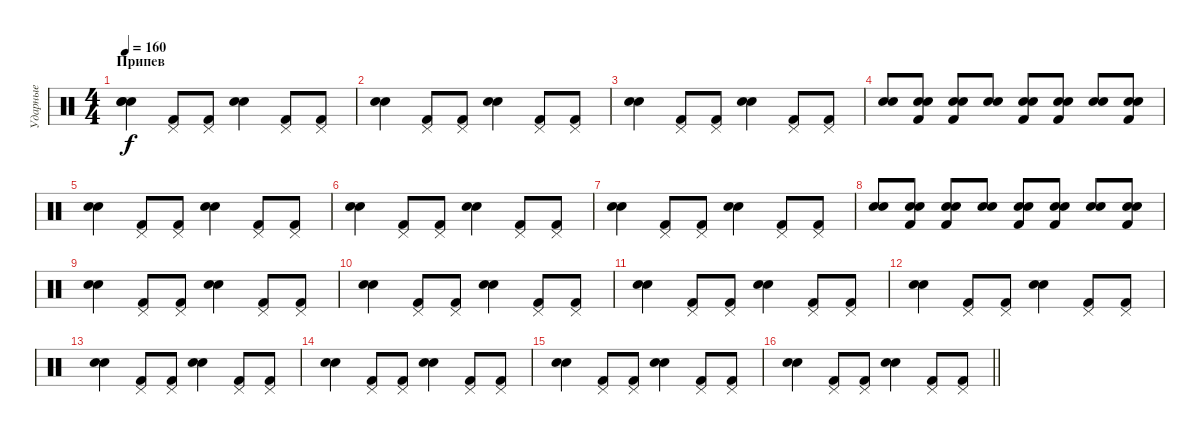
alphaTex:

\track ("Ударные" "Ударные") {instrument percussion}
\staff {score}
\articulation defaults
\ts (4 4)
\section ("" "Припев")
\tempo 160
\clef neutral
\ks c
("Snare (hit) 2" "Electric Snare (hit)" "Snare (hit)").4{dy f} ("Kick (hit) 2" "Pedal Hi-Hat (hit)").8 ("Kick (hit) 2" "Pedal Hi-Hat (hit)").8 ("Snare (hit) 2" "Electric Snare (hit)").4 ("Kick (hit) 2" "Pedal Hi-Hat (hit)").8 ("Kick (hit) 2" "Pedal Hi-Hat (hit)").8 |
("Snare (hit) 2" "Electric Snare (hit)").4 ("Kick (hit) 2" "Pedal Hi-Hat (hit)").8 ("Kick (hit) 2" "Pedal Hi-Hat (hit)").8 ("Snare (hit) 2" "Electric Snare (hit)").4 ("Kick (hit) 2" "Pedal Hi-Hat (hit)").8 ("Kick (hit) 2" "Pedal Hi-Hat (hit)").8 |
("Snare (hit) 2" "Electric Snare (hit)").4 ("Kick (hit) 2" "Pedal Hi-Hat (hit)").8 ("Kick (hit) 2" "Pedal Hi-Hat (hit)").8 ("Snare (hit) 2" "Electric Snare (hit)").4 ("Kick (hit) 2" "Pedal Hi-Hat (hit)").8 ("Kick (hit) 2" "Pedal Hi-Hat (hit)").8 |
("Snare (hit) 2" "Electric Snare (hit)").8 ("Snare (hit) 2" "Kick (hit) 2" "Electric Snare (hit)").8 ("Snare (hit) 2" "Kick (hit) 2" "Electric Snare (hit)").8 ("Snare (hit) 2" "Electric Snare (hit)").8 ("Snare (hit) 2" "Kick (hit) 2" "Electric Snare (hit)").8 ("Snare (hit) 2" "Kick (hit) 2" "Electric Snare (hit)").8 ("Snare (hit) 2" "Electric Snare (hit)").8 ("Snare (hit) 2" "Kick (hit) 2" "Electric Snare (hit)").8 |
("Snare (hit) 2" "Electric Snare (hit)").4 ("Kick (hit) 2" "Pedal Hi-Hat (hit)").8 ("Kick (hit) 2" "Pedal Hi-Hat (hit)").8 ("Snare (hit) 2" "Electric Snare (hit)").4 ("Kick (hit) 2" "Pedal Hi-Hat (hit)").8 ("Kick (hit) 2" "Pedal Hi-Hat (hit)").8 |
("Snare (hit) 2" "Electric Snare (hit)").4 ("Kick (hit) 2" "Pedal Hi-Hat (hit)").8 ("Kick (hit) 2" "Pedal Hi-Hat (hit)").8 ("Snare (hit) 2" "Electric Snare (hit)").4 ("Kick (hit) 2" "Pedal Hi-Hat (hit)").8 ("Kick (hit) 2" "Pedal Hi-Hat (hit)").8 |
("Snare (hit) 2" "Electric Snare (hit)").4 ("Kick (hit) 2" "Pedal Hi-Hat (hit)").8 ("Kick (hit) 2" "Pedal Hi-Hat (hit)").8 ("Snare (hit) 2" "Electric Snare (hit)").4 ("Kick (hit) 2" "Pedal Hi-Hat (hit)").8 ("Kick (hit) 2" "Pedal Hi-Hat (hit)").8 |
("Snare (hit) 2" "Electric Snare (hit)").8 ("Snare (hit) 2" "Kick (hit) 2" "Electric Snare (hit)").8 ("Snare (hit) 2" "Kick (hit) 2" "Electric Snare (hit)").8 ("Snare (hit) 2" "Electric Snare (hit)").8 ("Snare (hit) 2" "Kick (hit) 2" "Electric Snare (hit)").8 ("Snare (hit) 2" "Kick (hit) 2" "Electric Snare (hit)").8 ("Snare (hit) 2" "Electric Snare (hit)").8 ("Snare (hit) 2" "Kick (hit) 2" "Electric Snare (hit)").8 |
("Snare (hit) 2" "Electric Snare (hit)").4 ("Kick (hit) 2" "Pedal Hi-Hat (hit)").8 ("Kick (hit) 2" "Pedal Hi-Hat (hit)").8 ("Snare (hit) 2" "Electric Snare (hit)").4 ("Kick (hit) 2" "Pedal Hi-Hat (hit)").8 ("Kick (hit) 2" "Pedal Hi-Hat (hit)").8 |
("Snare (hit) 2" "Electric Snare (hit)").4 ("Kick (hit) 2" "Pedal Hi-Hat (hit)").8 ("Kick (hit) 2" "Pedal Hi-Hat (hit)").8 ("Snare (hit) 2" "Electric Snare (hit)").4 ("Kick (hit) 2" "Pedal Hi-Hat (hit)").8 ("Kick (hit) 2" "Pedal Hi-Hat (hit)").8 |
("Snare (hit) 2" "Electric Snare (hit)").4 ("Kick (hit) 2" "Pedal Hi-Hat (hit)").8 ("Kick (hit) 2" "Pedal Hi-Hat (hit)").8 ("Snare (hit) 2" "Electric Snare (hit)").4 ("Kick (hit) 2" "Pedal Hi-Hat (hit)").8 ("Kick (hit) 2" "Pedal Hi-Hat (hit)").8 |
("Snare (hit) 2" "Electric Snare (hit)").4 ("Kick (hit) 2" "Pedal Hi-Hat (hit)").8 ("Kick (hit) 2" "Pedal Hi-Hat (hit)").8 ("Snare (hit) 2" "Electric Snare (hit)").4 ("Kick (hit) 2" "Pedal Hi-Hat (hit)").8 ("Kick (hit) 2" "Pedal Hi-Hat (hit)").8 |
("Snare (hit) 2" "Electric Snare (hit)").4 ("Kick (hit) 2" "Pedal Hi-Hat (hit)").8 ("Kick (hit) 2" "Pedal Hi-Hat (hit)").8 ("Snare (hit) 2" "Electric Snare (hit)").4 ("Kick (hit) 2" "Pedal Hi-Hat (hit)").8 ("Kick (hit) 2" "Pedal Hi-Hat (hit)").8 |
("Snare (hit) 2" "Electric Snare (hit)").4 ("Kick (hit) 2" "Pedal Hi-Hat (hit)").8 ("Kick (hit) 2" "Pedal Hi-Hat (hit)").8 ("Snare (hit) 2" "Electric Snare (hit)").4 ("Kick (hit) 2" "Pedal Hi-Hat (hit)").8 ("Kick (hit) 2" "Pedal Hi-Hat (hit)").8 |
("Snare (hit) 2" "Electric Snare (hit)").4 ("Kick (hit) 2" "Pedal Hi-Hat (hit)").8 ("Kick (hit) 2" "Pedal Hi-Hat (hit)").8 ("Snare (hit) 2" "Electric Snare (hit)").4 ("Kick (hit) 2" "Pedal Hi-Hat (hit)").8 ("Kick (hit) 2" "Pedal Hi-Hat (hit)").8 |
\barLineRight lightlight
("Snare (hit) 2" "Electric Snare (hit)").4 ("Kick (hit) 2" "Pedal Hi-Hat (hit)").8 ("Kick (hit) 2" "Pedal Hi-Hat (hit)").8 ("Snare (hit) 2" "Electric Snare (hit)").4 ("Kick (hit) 2" "Pedal Hi-Hat (hit)").8 ("Kick (hit) 2" "Pedal Hi-Hat (hit)").8
